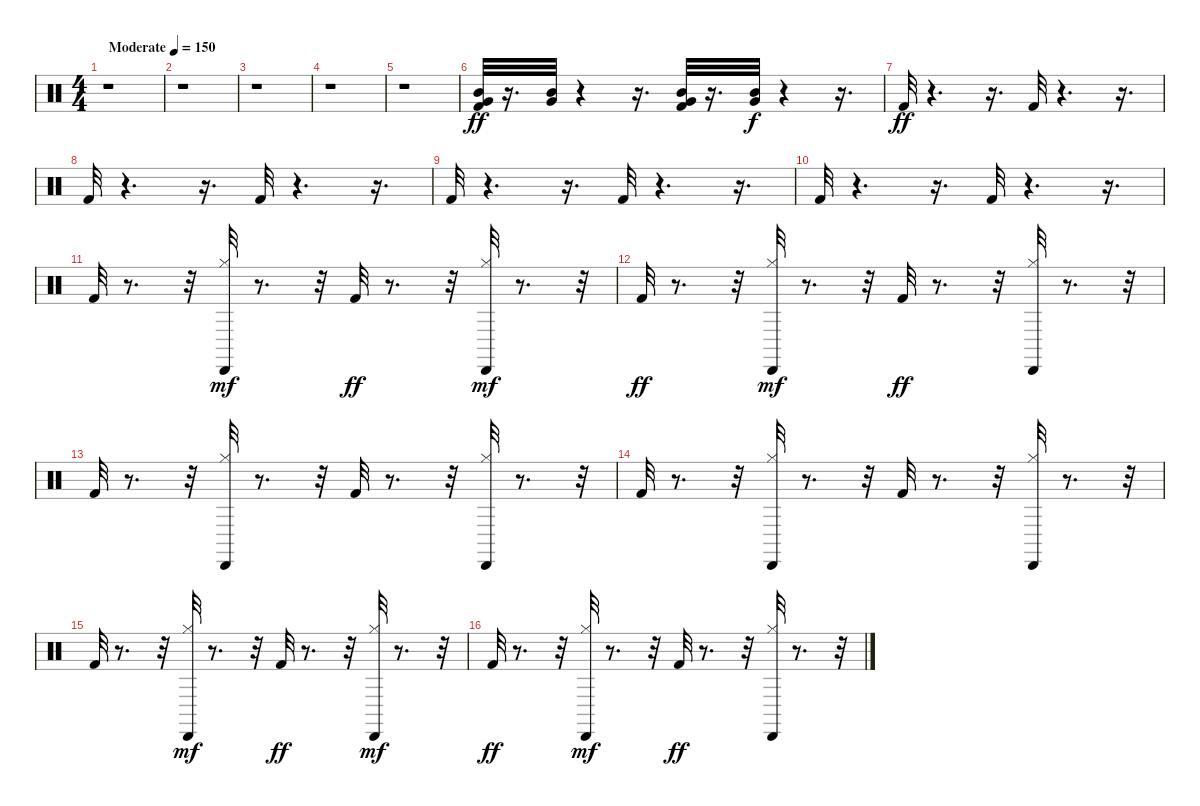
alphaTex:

\track "" {instrument percussion}
\staff {score}
\articulation defaults
\ts (4 4)
\tempo (150 "Moderate")
\clef neutral
\ks c
r.1{dy ff} |
r.1 |
r.1 |
r.1 |
r.1 |
("Kick (hit) 2" "Mid Tom (hit)" "Very Low Tom (hit)").32 r.16{d} ("Very Low Tom (hit)" "Mid Tom (hit)").32 r.4 r.16{d} ("Kick (hit) 2" "Very Low Tom (hit)" "Mid Tom (hit)").32 r.16{d} ("Very Low Tom (hit)" "Mid Tom (hit)").32{dy f} r.4 r.16{d} |
"Kick (hit) 2".32{dy ff} r.4{d} r.16{d} "Kick (hit) 2".32 r.4{d} r.16{d} |
"Kick (hit) 2".32 r.4{d} r.16{d} "Kick (hit) 2".32 r.4{d} r.16{d} |
"Kick (hit) 2".32 r.4{d} r.16{d} "Kick (hit) 2".32 r.4{d} r.16{d} |
"Kick (hit) 2".32 r.4{d} r.16{d} "Kick (hit) 2".32 r.4{d} r.16{d} |
"Kick (hit) 2".32 r.8{d} r.32 ("Hi-Hat (closed)" "Cabasa (hit)").32{dy mf} r.8{d} r.32 "Kick (hit) 2".32{dy ff} r.8{d} r.32 ("Hi-Hat (closed)" "Cabasa (hit)").32{dy mf} r.8{d} r.32 |
"Kick (hit) 2".32{dy ff} r.8{d} r.32 ("Hi-Hat (closed)" "Cabasa (hit)").32{dy mf} r.8{d} r.32 "Kick (hit) 2".32{dy ff} r.8{d} r.32 ("Hi-Hat (closed)" "Cabasa (hit)").32 r.8{d} r.32 |
"Kick (hit) 2".32 r.8{d} r.32 ("Hi-Hat (closed)" "Cabasa (hit)").32 r.8{d} r.32 "Kick (hit) 2".32 r.8{d} r.32 ("Hi-Hat (closed)" "Cabasa (hit)").32 r.8{d} r.32 |
"Kick (hit) 2".32 r.8{d} r.32 ("Hi-Hat (closed)" "Cabasa (hit)").32 r.8{d} r.32 "Kick (hit) 2".32 r.8{d} r.32 ("Hi-Hat (closed)" "Cabasa (hit)").32 r.8{d} r.32 |
"Kick (hit) 2".32 r.8{d} r.32 ("Hi-Hat (closed)" "Cabasa (hit)").32{dy mf} r.8{d} r.32 "Kick (hit) 2".32{dy ff} r.8{d} r.32 ("Hi-Hat (closed)" "Cabasa (hit)").32{dy mf} r.8{d} r.32 |
"Kick (hit) 2".32{dy ff} r.8{d} r.32 ("Hi-Hat (closed)" "Cabasa (hit)").32{dy mf} r.8{d} r.32 "Kick (hit) 2".32{dy ff} r.8{d} r.32 ("Hi-Hat (closed)" "Cabasa (hit)").32 r.8{d} r.32
